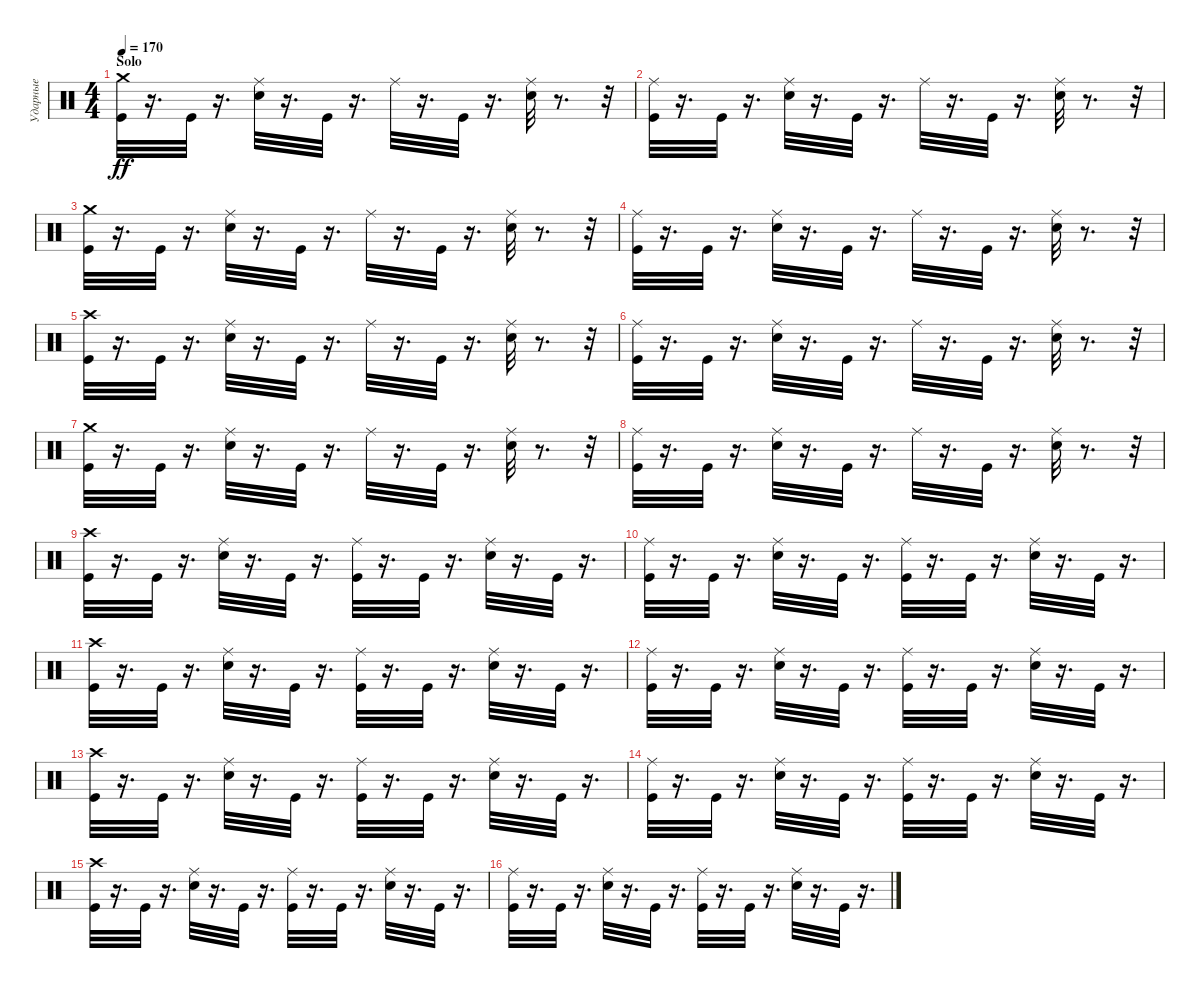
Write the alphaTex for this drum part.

\track ("Ударные" "Ударные") {instrument percussion}
\staff {score}
\articulation defaults
\ts (4 4)
\section ("" "Solo")
\tempo 170
\clef neutral
\ks c
("Crash medium (hit)" "Kick (hit)").32{dy ff} r.16{d} "Kick (hit)".32 r.16{d} ("Ride (middle)" "Snare (hit) 2").32 r.16{d} "Kick (hit)".32 r.16{d} "Ride (middle)".32 r.16{d} "Kick (hit)".32 r.16{d} ("Ride (middle)" "Snare (hit) 2").32 r.8{d} r.32 |
("Kick (hit)" "Ride (middle)").32 r.16{d} "Kick (hit)".32 r.16{d} ("Snare (hit) 2" "Ride (middle)").32 r.16{d} "Kick (hit)".32 r.16{d} "Ride (middle)".32 r.16{d} "Kick (hit)".32 r.16{d} ("Snare (hit) 2" "Ride (middle)").32 r.8{d} r.32 |
("Crash medium (hit)" "Kick (hit)").32 r.16{d} "Kick (hit)".32 r.16{d} ("Ride (middle)" "Snare (hit) 2").32 r.16{d} "Kick (hit)".32 r.16{d} "Ride (middle)".32 r.16{d} "Kick (hit)".32 r.16{d} ("Ride (middle)" "Snare (hit) 2").32 r.8{d} r.32 |
("Kick (hit)" "Ride (middle)").32 r.16{d} "Kick (hit)".32 r.16{d} ("Snare (hit) 2" "Ride (middle)").32 r.16{d} "Kick (hit)".32 r.16{d} "Ride (middle)".32 r.16{d} "Kick (hit)".32 r.16{d} ("Snare (hit) 2" "Ride (middle)").32 r.8{d} r.32 |
("Crash high (hit)" "Kick (hit)").32 r.16{d} "Kick (hit)".32 r.16{d} ("Ride (middle)" "Snare (hit) 2").32 r.16{d} "Kick (hit)".32 r.16{d} "Ride (middle)".32 r.16{d} "Kick (hit)".32 r.16{d} ("Ride (middle)" "Snare (hit) 2").32 r.8{d} r.32 |
("Kick (hit)" "Ride (middle)").32 r.16{d} "Kick (hit)".32 r.16{d} ("Snare (hit) 2" "Ride (middle)").32 r.16{d} "Kick (hit)".32 r.16{d} "Ride (middle)".32 r.16{d} "Kick (hit)".32 r.16{d} ("Snare (hit) 2" "Ride (middle)").32 r.8{d} r.32 |
("Crash medium (hit)" "Kick (hit)").32 r.16{d} "Kick (hit)".32 r.16{d} ("Ride (middle)" "Snare (hit) 2").32 r.16{d} "Kick (hit)".32 r.16{d} "Ride (middle)".32 r.16{d} "Kick (hit)".32 r.16{d} ("Ride (middle)" "Snare (hit) 2").32 r.8{d} r.32 |
("Kick (hit)" "Ride (middle)").32 r.16{d} "Kick (hit)".32 r.16{d} ("Snare (hit) 2" "Ride (middle)").32 r.16{d} "Kick (hit)".32 r.16{d} "Ride (middle)".32 r.16{d} "Kick (hit)".32 r.16{d} ("Snare (hit) 2" "Ride (middle)").32 r.8{d} r.32 |
("Crash high (hit)" "Kick (hit)").32 r.16{d} "Kick (hit)".32 r.16{d} ("Snare (hit) 2" "Ride (middle)").32 r.16{d} "Kick (hit)".32 r.16{d} ("Ride (middle)" "Kick (hit)").32 r.16{d} "Kick (hit)".32 r.16{d} ("Ride (middle)" "Snare (hit) 2").32 r.16{d} "Kick (hit)".32 r.16{d} |
("Kick (hit)" "Ride (middle)").32 r.16{d} "Kick (hit)".32 r.16{d} ("Snare (hit) 2" "Ride (middle)").32 r.16{d} "Kick (hit)".32 r.16{d} ("Kick (hit)" "Ride (middle)").32 r.16{d} "Kick (hit)".32 r.16{d} ("Snare (hit) 2" "Ride (middle)").32 r.16{d} "Kick (hit)".32 r.16{d} |
("Crash high (hit)" "Kick (hit)").32 r.16{d} "Kick (hit)".32 r.16{d} ("Snare (hit) 2" "Ride (middle)").32 r.16{d} "Kick (hit)".32 r.16{d} ("Ride (middle)" "Kick (hit)").32 r.16{d} "Kick (hit)".32 r.16{d} ("Ride (middle)" "Snare (hit) 2").32 r.16{d} "Kick (hit)".32 r.16{d} |
("Kick (hit)" "Ride (middle)").32 r.16{d} "Kick (hit)".32 r.16{d} ("Snare (hit) 2" "Ride (middle)").32 r.16{d} "Kick (hit)".32 r.16{d} ("Kick (hit)" "Ride (middle)").32 r.16{d} "Kick (hit)".32 r.16{d} ("Snare (hit) 2" "Ride (middle)").32 r.16{d} "Kick (hit)".32 r.16{d} |
("Crash high (hit)" "Kick (hit)").32 r.16{d} "Kick (hit)".32 r.16{d} ("Snare (hit) 2" "Ride (middle)").32 r.16{d} "Kick (hit)".32 r.16{d} ("Ride (middle)" "Kick (hit)").32 r.16{d} "Kick (hit)".32 r.16{d} ("Ride (middle)" "Snare (hit) 2").32 r.16{d} "Kick (hit)".32 r.16{d} |
("Kick (hit)" "Ride (middle)").32 r.16{d} "Kick (hit)".32 r.16{d} ("Snare (hit) 2" "Ride (middle)").32 r.16{d} "Kick (hit)".32 r.16{d} ("Kick (hit)" "Ride (middle)").32 r.16{d} "Kick (hit)".32 r.16{d} ("Snare (hit) 2" "Ride (middle)").32 r.16{d} "Kick (hit)".32 r.16{d} |
("Crash high (hit)" "Kick (hit)").32 r.16{d} "Kick (hit)".32 r.16{d} ("Snare (hit) 2" "Ride (middle)").32 r.16{d} "Kick (hit)".32 r.16{d} ("Ride (middle)" "Kick (hit)").32 r.16{d} "Kick (hit)".32 r.16{d} ("Ride (middle)" "Snare (hit) 2").32 r.16{d} "Kick (hit)".32 r.16{d} |
("Kick (hit)" "Ride (middle)").32 r.16{d} "Kick (hit)".32 r.16{d} ("Snare (hit) 2" "Ride (middle)").32 r.16{d} "Kick (hit)".32 r.16{d} ("Kick (hit)" "Ride (middle)").32 r.16{d} "Kick (hit)".32 r.16{d} ("Snare (hit) 2" "Ride (middle)").32 r.16{d} "Kick (hit)".32 r.16{d}
